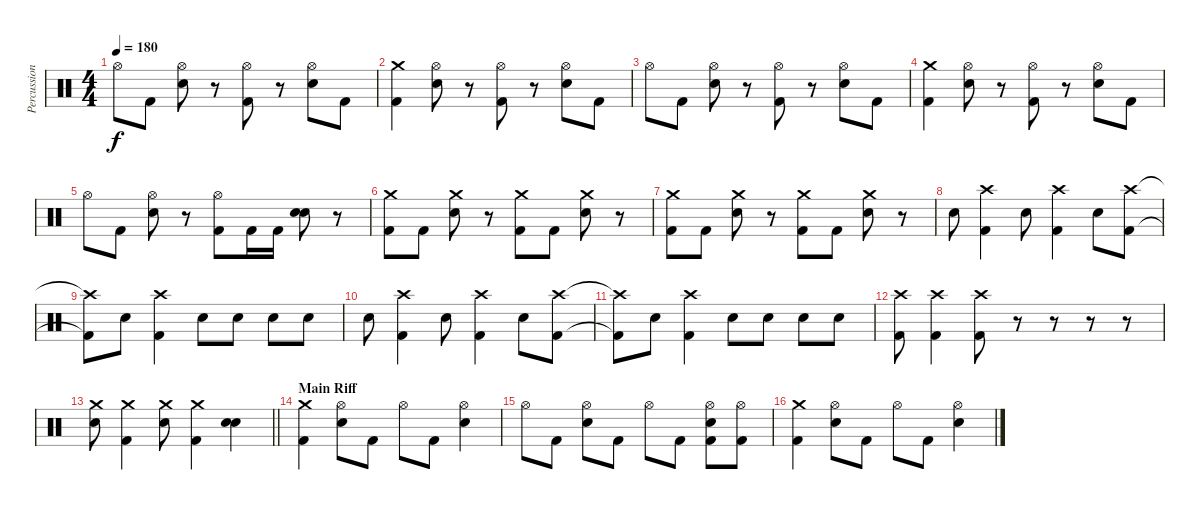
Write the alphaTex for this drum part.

\track ("Percussion" "Percussion") {instrument percussion}
\staff {score}
\articulation defaults
\ts (4 4)
\tempo 180
\clef neutral
\ks c "Hi-Hat (open)".8{dy f} "Kick (hit) 2".8
("Hi-Hat (open)" "Snare (hit) 2").8 r.8 ("Hi-Hat (open)" "Kick (hit) 2").8 r.8 ("Hi-Hat (open)" "Snare (hit) 2").8 "Kick (hit) 2".8 |
("Crash medium (hit)" "Kick (hit) 2").4 ("Hi-Hat (open)" "Snare (hit) 2").8 r.8 ("Hi-Hat (open)" "Kick (hit) 2").8 r.8 ("Hi-Hat (open)" "Snare (hit) 2").8 "Kick (hit) 2".8 |
"Hi-Hat (open)".8 "Kick (hit) 2".8 ("Hi-Hat (open)" "Snare (hit) 2").8 r.8 ("Hi-Hat (open)" "Kick (hit) 2").8 r.8 ("Hi-Hat (open)" "Snare (hit) 2").8 "Kick (hit) 2".8 |
("Crash medium (hit)" "Kick (hit) 2").4 ("Hi-Hat (open)" "Snare (hit) 2").8 r.8 ("Hi-Hat (open)" "Kick (hit) 2").8 r.8 ("Hi-Hat (open)" "Snare (hit) 2").8 "Kick (hit) 2".8 |
"Hi-Hat (open)".8 "Kick (hit) 2".8 ("Hi-Hat (open)" "Snare (hit) 2").8 r.8 ("Hi-Hat (open)" "Kick (hit) 2").8 "Kick (hit) 2".16 "Kick (hit) 2".16 ("Snare (hit) 2" "Snare (hit) 2").8 r.8 |
("Crash medium (hit)" "Kick (hit) 2").8 "Kick (hit) 2".8 ("Crash medium (hit)" "Snare (hit) 2").8 r.8 ("Crash medium (hit)" "Kick (hit) 2").8 "Kick (hit) 2".8 ("Crash medium (hit)" "Snare (hit) 2").8 r.8 |
("Crash medium (hit)" "Kick (hit) 2").8 "Kick (hit) 2".8 ("Crash medium (hit)" "Snare (hit) 2").8 r.8 ("Crash medium (hit)" "Kick (hit) 2").8 "Kick (hit) 2".8 ("Crash medium (hit)" "Snare (hit) 2").8 r.8 |
"Snare (hit) 2".8 ("Crash high (hit)" "Kick (hit) 2").4 "Snare (hit) 2".8 ("Crash high (hit)" "Kick (hit) 2").4 "Snare (hit) 2".8 ("Crash high (hit)" "Kick (hit) 2").8 |
("Crash high (hit)"{t} "Kick (hit) 2"{t}).8 "Snare (hit) 2".8 ("Crash high (hit)" "Kick (hit) 2").4 "Snare (hit) 2".8 "Snare (hit) 2".8 "Snare (hit) 2".8 "Snare (hit) 2".8 |
"Snare (hit) 2".8 ("Crash high (hit)" "Kick (hit) 2").4 "Snare (hit) 2".8 ("Crash high (hit)" "Kick (hit) 2").4 "Snare (hit) 2".8 ("Crash high (hit)" "Kick (hit) 2").8 |
("Crash high (hit)"{t} "Kick (hit) 2"{t}).8 "Snare (hit) 2".8 ("Crash high (hit)" "Kick (hit) 2").4 "Snare (hit) 2".8 "Snare (hit) 2".8 "Snare (hit) 2".8 "Snare (hit) 2".8 |
("Crash high (hit)" "Kick (hit) 2").8 ("Crash high (hit)" "Kick (hit) 2").4 ("Crash high (hit)" "Kick (hit) 2").8 r.8 r.8 r.8 r.8 |
\barLineRight lightlight
("Crash medium (hit)" "Snare (hit) 2").8 ("Crash medium (hit)" "Kick (hit) 2").4 ("Crash medium (hit)" "Snare (hit) 2").8 ("Crash medium (hit)" "Kick (hit) 2").4 ("Snare (hit) 2" "Snare (hit) 2").4 |
\section ("" "Main Riff")
("Crash medium (hit)" "Kick (hit) 2").4 ("Hi-Hat (open)" "Snare (hit) 2").8 "Kick (hit) 2".8 "Hi-Hat (open)".8 "Kick (hit) 2".8 ("Hi-Hat (open)" "Snare (hit) 2").4 |
"Hi-Hat (open)".8 "Kick (hit) 2".8 ("Hi-Hat (open)" "Snare (hit) 2").8 "Kick (hit) 2".8 "Hi-Hat (open)".8 "Kick (hit) 2".8 ("Hi-Hat (open)" "Snare (hit) 2" "Kick (hit) 2").8 ("Hi-Hat (open)" "Kick (hit) 2").8 |
("Crash medium (hit)" "Kick (hit) 2").4 ("Hi-Hat (open)" "Snare (hit) 2").8 "Kick (hit) 2".8 "Hi-Hat (open)".8 "Kick (hit) 2".8 ("Hi-Hat (open)" "Snare (hit) 2").4
